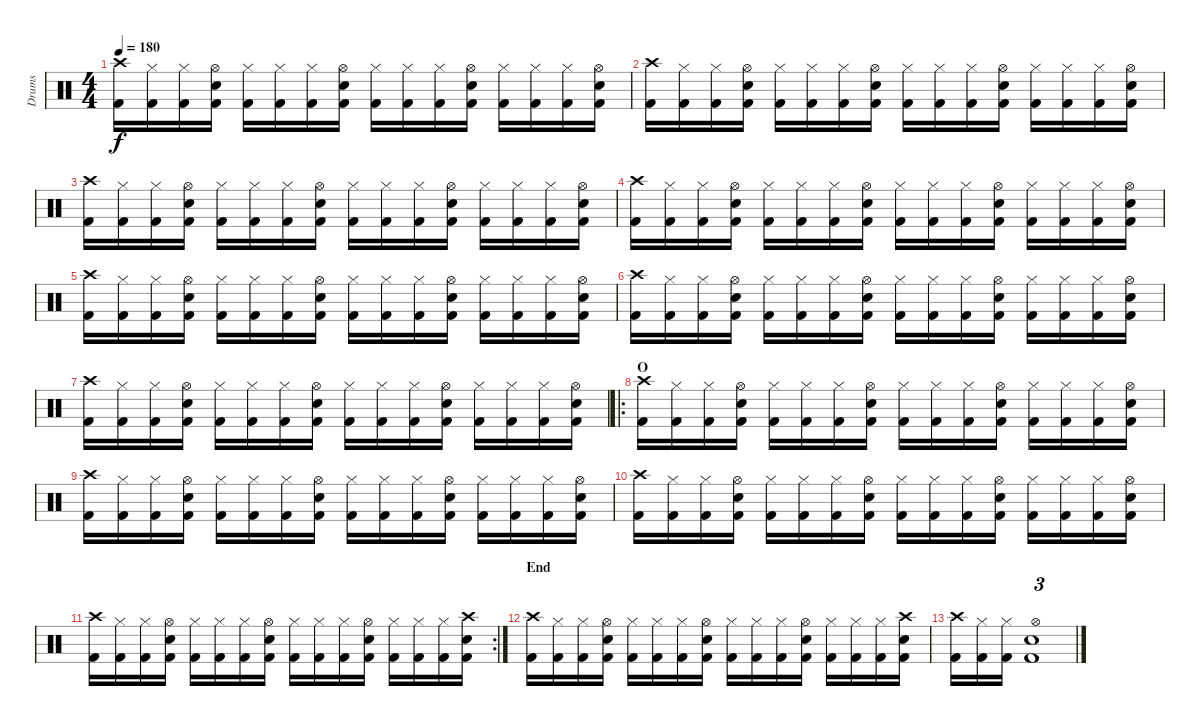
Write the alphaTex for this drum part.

\track ("Drums" "Drums") {instrument percussion}
\staff {score}
\articulation defaults
\ts (4 4)
\tempo 180
\clef neutral
\ks c
("Crash high (hit)" "Kick (hit) 2").16{dy f} ("Hi-Hat (closed)" "Kick (hit) 2").16 ("Hi-Hat (closed)" "Kick (hit) 2").16 ("Hi-Hat (open)" "Snare (hit) 2" "Kick (hit) 2").16 ("Hi-Hat (closed)" "Kick (hit) 2").16 ("Hi-Hat (closed)" "Kick (hit) 2").16 ("Hi-Hat (closed)" "Kick (hit) 2").16 ("Hi-Hat (open)" "Snare (hit) 2" "Kick (hit) 2").16 ("Hi-Hat (closed)" "Kick (hit) 2").16 ("Hi-Hat (closed)" "Kick (hit) 2").16 ("Hi-Hat (closed)" "Kick (hit) 2").16 ("Hi-Hat (open)" "Snare (hit) 2" "Kick (hit) 2").16 ("Hi-Hat (closed)" "Kick (hit) 2").16 ("Hi-Hat (closed)" "Kick (hit) 2").16 ("Hi-Hat (closed)" "Kick (hit) 2").16 ("Hi-Hat (open)" "Snare (hit) 2" "Kick (hit) 2").16 |
("Crash high (hit)" "Kick (hit) 2").16 ("Hi-Hat (closed)" "Kick (hit) 2").16 ("Hi-Hat (closed)" "Kick (hit) 2").16 ("Hi-Hat (open)" "Snare (hit) 2" "Kick (hit) 2").16 ("Hi-Hat (closed)" "Kick (hit) 2").16 ("Hi-Hat (closed)" "Kick (hit) 2").16 ("Hi-Hat (closed)" "Kick (hit) 2").16 ("Hi-Hat (open)" "Snare (hit) 2" "Kick (hit) 2").16 ("Hi-Hat (closed)" "Kick (hit) 2").16 ("Hi-Hat (closed)" "Kick (hit) 2").16 ("Hi-Hat (closed)" "Kick (hit) 2").16 ("Hi-Hat (open)" "Snare (hit) 2" "Kick (hit) 2").16 ("Hi-Hat (closed)" "Kick (hit) 2").16 ("Hi-Hat (closed)" "Kick (hit) 2").16 ("Hi-Hat (closed)" "Kick (hit) 2").16 ("Hi-Hat (open)" "Snare (hit) 2" "Kick (hit) 2").16 |
("Crash high (hit)" "Kick (hit) 2").16 ("Hi-Hat (closed)" "Kick (hit) 2").16 ("Hi-Hat (closed)" "Kick (hit) 2").16 ("Hi-Hat (open)" "Snare (hit) 2" "Kick (hit) 2").16 ("Hi-Hat (closed)" "Kick (hit) 2").16 ("Hi-Hat (closed)" "Kick (hit) 2").16 ("Hi-Hat (closed)" "Kick (hit) 2").16 ("Hi-Hat (open)" "Snare (hit) 2" "Kick (hit) 2").16 ("Hi-Hat (closed)" "Kick (hit) 2").16 ("Hi-Hat (closed)" "Kick (hit) 2").16 ("Hi-Hat (closed)" "Kick (hit) 2").16 ("Hi-Hat (open)" "Snare (hit) 2" "Kick (hit) 2").16 ("Hi-Hat (closed)" "Kick (hit) 2").16 ("Hi-Hat (closed)" "Kick (hit) 2").16 ("Hi-Hat (closed)" "Kick (hit) 2").16 ("Hi-Hat (open)" "Snare (hit) 2" "Kick (hit) 2").16 |
("Crash high (hit)" "Kick (hit) 2").16 ("Hi-Hat (closed)" "Kick (hit) 2").16 ("Hi-Hat (closed)" "Kick (hit) 2").16 ("Hi-Hat (open)" "Snare (hit) 2" "Kick (hit) 2").16 ("Hi-Hat (closed)" "Kick (hit) 2").16 ("Hi-Hat (closed)" "Kick (hit) 2").16 ("Hi-Hat (closed)" "Kick (hit) 2").16 ("Hi-Hat (open)" "Snare (hit) 2" "Kick (hit) 2").16 ("Hi-Hat (closed)" "Kick (hit) 2").16 ("Hi-Hat (closed)" "Kick (hit) 2").16 ("Hi-Hat (closed)" "Kick (hit) 2").16 ("Hi-Hat (open)" "Snare (hit) 2" "Kick (hit) 2").16 ("Hi-Hat (closed)" "Kick (hit) 2").16 ("Hi-Hat (closed)" "Kick (hit) 2").16 ("Hi-Hat (closed)" "Kick (hit) 2").16 ("Hi-Hat (open)" "Snare (hit) 2" "Kick (hit) 2").16 |
("Crash high (hit)" "Kick (hit) 2").16 ("Hi-Hat (closed)" "Kick (hit) 2").16 ("Hi-Hat (closed)" "Kick (hit) 2").16 ("Hi-Hat (open)" "Snare (hit) 2" "Kick (hit) 2").16 ("Hi-Hat (closed)" "Kick (hit) 2").16 ("Hi-Hat (closed)" "Kick (hit) 2").16 ("Hi-Hat (closed)" "Kick (hit) 2").16 ("Hi-Hat (open)" "Snare (hit) 2" "Kick (hit) 2").16 ("Hi-Hat (closed)" "Kick (hit) 2").16 ("Hi-Hat (closed)" "Kick (hit) 2").16 ("Hi-Hat (closed)" "Kick (hit) 2").16 ("Hi-Hat (open)" "Snare (hit) 2" "Kick (hit) 2").16 ("Hi-Hat (closed)" "Kick (hit) 2").16 ("Hi-Hat (closed)" "Kick (hit) 2").16 ("Hi-Hat (closed)" "Kick (hit) 2").16 ("Hi-Hat (open)" "Snare (hit) 2" "Kick (hit) 2").16 |
("Crash high (hit)" "Kick (hit) 2").16 ("Hi-Hat (closed)" "Kick (hit) 2").16 ("Hi-Hat (closed)" "Kick (hit) 2").16 ("Hi-Hat (open)" "Snare (hit) 2" "Kick (hit) 2").16 ("Hi-Hat (closed)" "Kick (hit) 2").16 ("Hi-Hat (closed)" "Kick (hit) 2").16 ("Hi-Hat (closed)" "Kick (hit) 2").16 ("Hi-Hat (open)" "Snare (hit) 2" "Kick (hit) 2").16 ("Hi-Hat (closed)" "Kick (hit) 2").16 ("Hi-Hat (closed)" "Kick (hit) 2").16 ("Hi-Hat (closed)" "Kick (hit) 2").16 ("Hi-Hat (open)" "Snare (hit) 2" "Kick (hit) 2").16 ("Hi-Hat (closed)" "Kick (hit) 2").16 ("Hi-Hat (closed)" "Kick (hit) 2").16 ("Hi-Hat (closed)" "Kick (hit) 2").16 ("Hi-Hat (open)" "Snare (hit) 2" "Kick (hit) 2").16 |
("Crash high (hit)" "Kick (hit) 2").16 ("Hi-Hat (closed)" "Kick (hit) 2").16 ("Hi-Hat (closed)" "Kick (hit) 2").16 ("Hi-Hat (open)" "Snare (hit) 2" "Kick (hit) 2").16 ("Hi-Hat (closed)" "Kick (hit) 2").16 ("Hi-Hat (closed)" "Kick (hit) 2").16 ("Hi-Hat (closed)" "Kick (hit) 2").16 ("Hi-Hat (open)" "Snare (hit) 2" "Kick (hit) 2").16 ("Hi-Hat (closed)" "Kick (hit) 2").16 ("Hi-Hat (closed)" "Kick (hit) 2").16 ("Hi-Hat (closed)" "Kick (hit) 2").16 ("Hi-Hat (open)" "Snare (hit) 2" "Kick (hit) 2").16 ("Hi-Hat (closed)" "Kick (hit) 2").16 ("Hi-Hat (closed)" "Kick (hit) 2").16 ("Hi-Hat (closed)" "Kick (hit) 2").16 ("Hi-Hat (open)" "Snare (hit) 2" "Kick (hit) 2").16 |
\ro
\section ("" "O")
("Crash high (hit)" "Kick (hit) 2").16 ("Hi-Hat (closed)" "Kick (hit) 2").16 ("Hi-Hat (closed)" "Kick (hit) 2").16 ("Hi-Hat (open)" "Snare (hit) 2" "Kick (hit) 2").16 ("Hi-Hat (closed)" "Kick (hit) 2").16 ("Hi-Hat (closed)" "Kick (hit) 2").16 ("Hi-Hat (closed)" "Kick (hit) 2").16 ("Hi-Hat (open)" "Snare (hit) 2" "Kick (hit) 2").16 ("Hi-Hat (closed)" "Kick (hit) 2").16 ("Hi-Hat (closed)" "Kick (hit) 2").16 ("Hi-Hat (closed)" "Kick (hit) 2").16 ("Hi-Hat (open)" "Snare (hit) 2" "Kick (hit) 2").16 ("Hi-Hat (closed)" "Kick (hit) 2").16 ("Hi-Hat (closed)" "Kick (hit) 2").16 ("Hi-Hat (closed)" "Kick (hit) 2").16 ("Hi-Hat (open)" "Snare (hit) 2" "Kick (hit) 2").16 |
("Crash high (hit)" "Kick (hit) 2").16 ("Hi-Hat (closed)" "Kick (hit) 2").16 ("Hi-Hat (closed)" "Kick (hit) 2").16 ("Hi-Hat (open)" "Snare (hit) 2" "Kick (hit) 2").16 ("Hi-Hat (closed)" "Kick (hit) 2").16 ("Hi-Hat (closed)" "Kick (hit) 2").16 ("Hi-Hat (closed)" "Kick (hit) 2").16 ("Hi-Hat (open)" "Snare (hit) 2" "Kick (hit) 2").16 ("Hi-Hat (closed)" "Kick (hit) 2").16 ("Hi-Hat (closed)" "Kick (hit) 2").16 ("Hi-Hat (closed)" "Kick (hit) 2").16 ("Hi-Hat (open)" "Snare (hit) 2" "Kick (hit) 2").16 ("Hi-Hat (closed)" "Kick (hit) 2").16 ("Hi-Hat (closed)" "Kick (hit) 2").16 ("Hi-Hat (closed)" "Kick (hit) 2").16 ("Hi-Hat (open)" "Snare (hit) 2" "Kick (hit) 2").16 |
("Crash high (hit)" "Kick (hit) 2").16 ("Hi-Hat (closed)" "Kick (hit) 2").16 ("Hi-Hat (closed)" "Kick (hit) 2").16 ("Hi-Hat (open)" "Snare (hit) 2" "Kick (hit) 2").16 ("Hi-Hat (closed)" "Kick (hit) 2").16 ("Hi-Hat (closed)" "Kick (hit) 2").16 ("Hi-Hat (closed)" "Kick (hit) 2").16 ("Hi-Hat (open)" "Snare (hit) 2" "Kick (hit) 2").16 ("Hi-Hat (closed)" "Kick (hit) 2").16 ("Hi-Hat (closed)" "Kick (hit) 2").16 ("Hi-Hat (closed)" "Kick (hit) 2").16 ("Hi-Hat (open)" "Snare (hit) 2" "Kick (hit) 2").16 ("Hi-Hat (closed)" "Kick (hit) 2").16 ("Hi-Hat (closed)" "Kick (hit) 2").16 ("Hi-Hat (closed)" "Kick (hit) 2").16 ("Hi-Hat (open)" "Snare (hit) 2" "Kick (hit) 2").16 |
\rc 2
("Crash high (hit)" "Kick (hit) 2").16 ("Hi-Hat (closed)" "Kick (hit) 2").16 ("Hi-Hat (closed)" "Kick (hit) 2").16 ("Hi-Hat (open)" "Snare (hit) 2" "Kick (hit) 2").16 ("Hi-Hat (closed)" "Kick (hit) 2").16 ("Hi-Hat (closed)" "Kick (hit) 2").16 ("Hi-Hat (closed)" "Kick (hit) 2").16 ("Hi-Hat (open)" "Snare (hit) 2" "Kick (hit) 2").16 ("Hi-Hat (closed)" "Kick (hit) 2").16 ("Hi-Hat (closed)" "Kick (hit) 2").16 ("Hi-Hat (closed)" "Kick (hit) 2").16 ("Hi-Hat (open)" "Snare (hit) 2" "Kick (hit) 2").16 ("Hi-Hat (closed)" "Kick (hit) 2").16 ("Hi-Hat (closed)" "Kick (hit) 2").16 ("Hi-Hat (closed)" "Kick (hit) 2").16 ("Crash high (hit)" "Snare (hit) 2" "Kick (hit) 2").16 |
\section ("" "End")
("Crash high (hit)" "Kick (hit) 2").16 ("Hi-Hat (closed)" "Kick (hit) 2").16 ("Hi-Hat (closed)" "Kick (hit) 2").16 ("Hi-Hat (open)" "Snare (hit) 2" "Kick (hit) 2").16 ("Hi-Hat (closed)" "Kick (hit) 2").16 ("Hi-Hat (closed)" "Kick (hit) 2").16 ("Hi-Hat (closed)" "Kick (hit) 2").16 ("Hi-Hat (open)" "Snare (hit) 2" "Kick (hit) 2").16 ("Hi-Hat (closed)" "Kick (hit) 2").16 ("Hi-Hat (closed)" "Kick (hit) 2").16 ("Hi-Hat (closed)" "Kick (hit) 2").16 ("Hi-Hat (open)" "Snare (hit) 2" "Kick (hit) 2").16 ("Hi-Hat (closed)" "Kick (hit) 2").16 ("Hi-Hat (closed)" "Kick (hit) 2").16 ("Hi-Hat (closed)" "Kick (hit) 2").16 ("Crash high (hit)" "Snare (hit) 2" "Kick (hit) 2").16 |
("Crash high (hit)" "Kick (hit) 2").16 ("Hi-Hat (closed)" "Kick (hit) 2").16 ("Hi-Hat (closed)" "Kick (hit) 2").16 ("Hi-Hat (open)" "Snare (hit) 2" "Kick (hit) 2").1{tu (3 2)}
